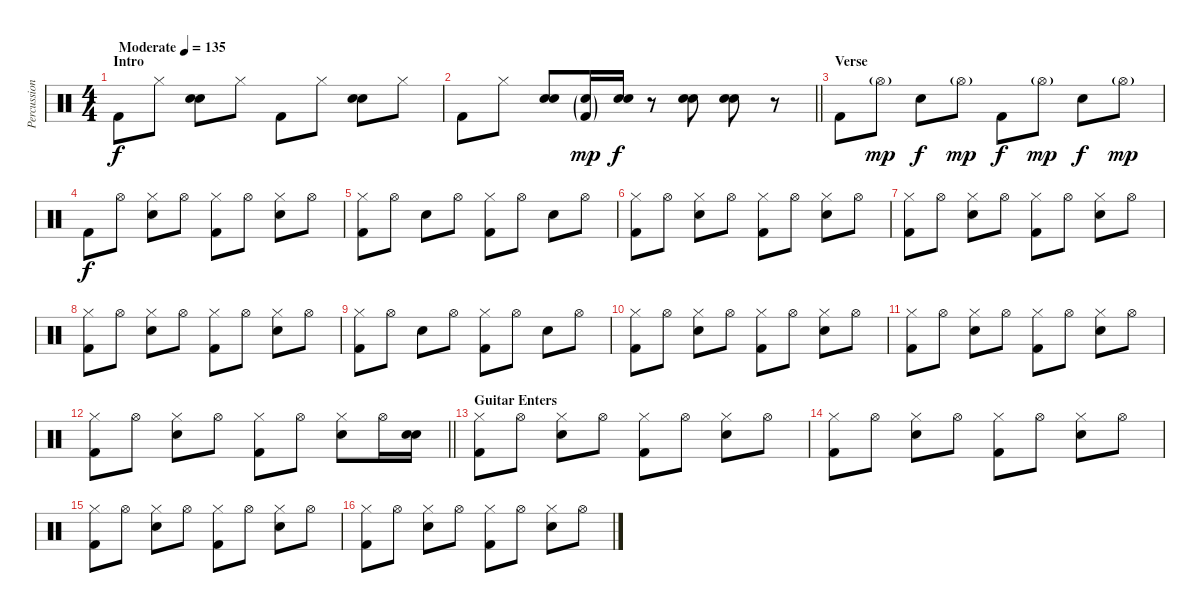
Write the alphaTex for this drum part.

\track ("Percussion" "Percussion") {instrument percussion}
\staff {score}
\articulation defaults
\ts (4 4)
\section ("" "Intro")
\tempo (135 "Moderate")
\clef neutral
\ks c "Kick (hit) 2".8{dy f} "Hi-Hat (closed)".8
("Electric Snare (hit)" "Snare (hit) 2").8 "Hi-Hat (closed)".8 "Kick (hit) 2".8 "Hi-Hat (closed)".8 ("Electric Snare (hit)" "Snare (hit) 2").8 "Hi-Hat (closed)".8 |
\barLineRight lightlight "Kick (hit) 2".8 "Hi-Hat (closed)".8
("Electric Snare (hit)" "Snare (hit) 2").8 ("Electric Snare (hit)"{g} "Kick (hit) 2"{g}).16{dy mp} ("Electric Snare (hit)" "Snare (hit) 2").16{dy f} r.8 ("Electric Snare (hit)" "Snare (hit) 2").8 ("Electric Snare (hit)" "Snare (hit) 2").8 r.8 |
\section ("" "Verse")
"Kick (hit) 2".8 "Hi-Hat (open)"{g}.8{dy mp} "Electric Snare (hit)".8{dy f} "Hi-Hat (open)"{g}.8{dy mp} "Kick (hit) 2".8{dy f} "Hi-Hat (open)"{g}.8{dy mp} "Electric Snare (hit)".8{dy f} "Hi-Hat (open)"{g}.8{dy mp} |
"Kick (hit) 2".8{dy f} "Hi-Hat (open)".8 ("Hi-Hat (closed)" "Snare (hit) 2").8 "Hi-Hat (open)".8 ("Hi-Hat (closed)" "Kick (hit) 2").8 "Hi-Hat (open)".8 ("Hi-Hat (closed)" "Snare (hit) 2").8 "Hi-Hat (open)".8 |
("Hi-Hat (closed)" "Kick (hit) 2").8 "Hi-Hat (open)".8 "Snare (hit) 2".8 "Hi-Hat (open)".8 ("Hi-Hat (closed)" "Kick (hit) 2").8 "Hi-Hat (open)".8 "Snare (hit) 2".8 "Hi-Hat (open)".8 |
("Hi-Hat (closed)" "Kick (hit) 2").8 "Hi-Hat (open)".8 ("Hi-Hat (closed)" "Snare (hit) 2").8 "Hi-Hat (open)".8 ("Hi-Hat (closed)" "Kick (hit) 2").8 "Hi-Hat (open)".8 ("Hi-Hat (closed)" "Snare (hit) 2").8 "Hi-Hat (open)".8 |
("Hi-Hat (closed)" "Kick (hit) 2").8 "Hi-Hat (open)".8 ("Hi-Hat (closed)" "Snare (hit) 2").8 "Hi-Hat (open)".8 ("Hi-Hat (closed)" "Kick (hit) 2").8 "Hi-Hat (open)".8 ("Hi-Hat (closed)" "Snare (hit) 2").8 "Hi-Hat (open)".8 |
("Hi-Hat (closed)" "Kick (hit) 2").8 "Hi-Hat (open)".8 ("Hi-Hat (closed)" "Snare (hit) 2").8 "Hi-Hat (open)".8 ("Hi-Hat (closed)" "Kick (hit) 2").8 "Hi-Hat (open)".8 ("Hi-Hat (closed)" "Snare (hit) 2").8 "Hi-Hat (open)".8 |
("Hi-Hat (closed)" "Kick (hit) 2").8 "Hi-Hat (open)".8 "Snare (hit) 2".8 "Hi-Hat (open)".8 ("Hi-Hat (closed)" "Kick (hit) 2").8 "Hi-Hat (open)".8 "Snare (hit) 2".8 "Hi-Hat (open)".8 |
("Hi-Hat (closed)" "Kick (hit) 2").8 "Hi-Hat (open)".8 ("Hi-Hat (closed)" "Snare (hit) 2").8 "Hi-Hat (open)".8 ("Hi-Hat (closed)" "Kick (hit) 2").8 "Hi-Hat (open)".8 ("Hi-Hat (closed)" "Snare (hit) 2").8 "Hi-Hat (open)".8 |
("Hi-Hat (closed)" "Kick (hit) 2").8 "Hi-Hat (open)".8 ("Hi-Hat (closed)" "Snare (hit) 2").8 "Hi-Hat (open)".8 ("Hi-Hat (closed)" "Kick (hit) 2").8 "Hi-Hat (open)".8 ("Hi-Hat (closed)" "Snare (hit) 2").8 "Hi-Hat (open)".8 |
\barLineRight lightlight
("Hi-Hat (closed)" "Kick (hit) 2").8 "Hi-Hat (open)".8 ("Hi-Hat (closed)" "Snare (hit) 2").8 "Hi-Hat (open)".8 ("Hi-Hat (closed)" "Kick (hit) 2").8 "Hi-Hat (open)".8 ("Hi-Hat (closed)" "Snare (hit) 2").8 "Hi-Hat (open)".16 ("Electric Snare (hit)" "Snare (hit) 2").16 |
\section ("" "Guitar Enters")
("Hi-Hat (closed)" "Kick (hit) 2").8 "Hi-Hat (open)".8 ("Hi-Hat (closed)" "Snare (hit) 2").8 "Hi-Hat (open)".8 ("Hi-Hat (closed)" "Kick (hit) 2").8 "Hi-Hat (open)".8 ("Hi-Hat (closed)" "Snare (hit) 2").8 "Hi-Hat (open)".8 |
("Hi-Hat (closed)" "Kick (hit) 2").8 "Hi-Hat (open)".8 ("Hi-Hat (closed)" "Snare (hit) 2").8 "Hi-Hat (open)".8 ("Hi-Hat (closed)" "Kick (hit) 2").8 "Hi-Hat (open)".8 ("Hi-Hat (closed)" "Snare (hit) 2").8 "Hi-Hat (open)".8 |
("Hi-Hat (closed)" "Kick (hit) 2").8 "Hi-Hat (open)".8 ("Hi-Hat (closed)" "Snare (hit) 2").8 "Hi-Hat (open)".8 ("Hi-Hat (closed)" "Kick (hit) 2").8 "Hi-Hat (open)".8 ("Hi-Hat (closed)" "Snare (hit) 2").8 "Hi-Hat (open)".8 |
("Hi-Hat (closed)" "Kick (hit) 2").8 "Hi-Hat (open)".8 ("Hi-Hat (closed)" "Snare (hit) 2").8 "Hi-Hat (open)".8 ("Hi-Hat (closed)" "Kick (hit) 2").8 "Hi-Hat (open)".8 ("Hi-Hat (closed)" "Snare (hit) 2").8 "Hi-Hat (open)".8
